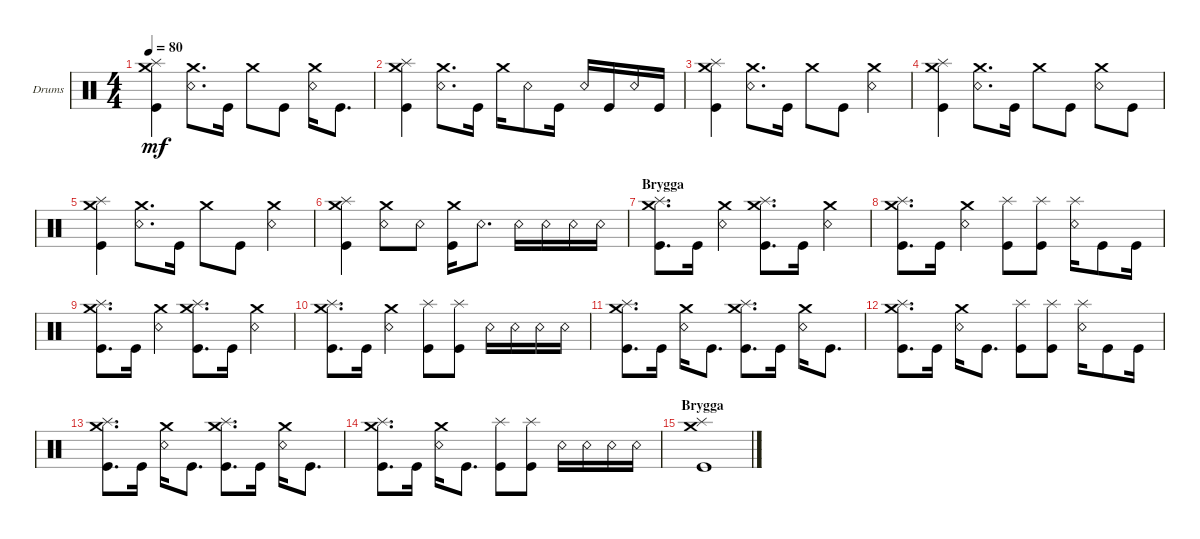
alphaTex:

\defaultSystemsLayout 4
\bracketExtendMode groupsimilarinstruments
\firstSystemTrackNameOrientation horizontal
\otherSystemsTrackNameOrientation horizontal
\track ("Drums" "Drums") {instrument percussion}
\staff {score}
\articulation defaults
\ts (4 4)
\tempo 80
\clef neutral
\ks c
("Kick (hit)" "Crash medium (hit)" "Splash (hit)").4{dy mf} ("Snare (rim shot)" "Crash medium (hit)").8{d} "Kick (hit)".16 "Crash medium (hit)".8 "Kick (hit)".8 ("Snare (rim shot)" "Crash medium (hit)").16 "Kick (hit)".8{d} |
("Kick (hit)" "Crash medium (hit)" "Splash (hit)").4 ("Snare (rim shot)" "Crash medium (hit)").8{d} "Kick (hit)".16 "Crash medium (hit)".16 "Snare (rim shot)".8 "Kick (hit)".16 "Snare (rim shot)".16 "Kick (hit)".16 "Snare (rim shot)".16 "Kick (hit)".16 |
("Kick (hit)" "Crash medium (hit)" "Splash (hit)").4 ("Snare (rim shot)" "Crash medium (hit)").8{d} "Kick (hit)".16 "Crash medium (hit)".8 "Kick (hit)".8 ("Snare (rim shot)" "Crash medium (hit)").4 |
("Kick (hit)" "Crash medium (hit)" "Splash (hit)").4 ("Snare (rim shot)" "Crash medium (hit)").8{d} "Kick (hit)".16 "Crash medium (hit)".8 "Kick (hit)".8 ("Snare (rim shot)" "Crash medium (hit)").8 "Kick (hit)".8 |
("Kick (hit)" "Crash medium (hit)" "Splash (hit)").4 ("Snare (rim shot)" "Crash medium (hit)").8{d} "Kick (hit)".16 "Crash medium (hit)".8 "Kick (hit)".8 ("Snare (rim shot)" "Crash medium (hit)").4 |
("Kick (hit)" "Crash medium (hit)" "Splash (hit)").4 ("Snare (rim shot)" "Crash medium (hit)").8 "Snare (rim shot)".8 ("Crash medium (hit)" "Kick (hit)").16 "Snare (rim shot)".8{d} "Snare (rim shot)".16 "Snare (rim shot)".16 "Snare (rim shot)".16 "Snare (rim shot)".16 |
\section ("" "Brygga")
("Kick (hit)" "Crash medium (hit)" "Splash (hit)").8{d} "Kick (hit)".16 ("Snare (rim shot)" "Crash medium (hit)").4 ("Kick (hit)" "Crash medium (hit)" "Splash (hit)").8{d} "Kick (hit)".16 ("Snare (rim shot)" "Crash medium (hit)").4 |
("Kick (hit)" "Crash medium (hit)" "Splash (hit)").8{d} "Kick (hit)".16 ("Snare (rim shot)" "Crash medium (hit)").4 ("Kick (hit)" "Splash (hit)").8 ("Kick (hit)" "Splash (hit)").8 ("Snare (rim shot)" "Splash (hit)").16 "Kick (hit)".8 "Kick (hit)".16 |
("Kick (hit)" "Crash medium (hit)" "Splash (hit)").8{d} "Kick (hit)".16 ("Snare (rim shot)" "Crash medium (hit)").4 ("Kick (hit)" "Crash medium (hit)" "Splash (hit)").8{d} "Kick (hit)".16 ("Snare (rim shot)" "Crash medium (hit)").4 |
("Kick (hit)" "Crash medium (hit)" "Splash (hit)").8{d} "Kick (hit)".16 ("Snare (rim shot)" "Crash medium (hit)").4 ("Kick (hit)" "Splash (hit)").8 ("Kick (hit)" "Splash (hit)").8 "Snare (rim shot)".16 "Snare (rim shot)".16 "Snare (rim shot)".16 "Snare (rim shot)".16 |
("Kick (hit)" "Crash medium (hit)" "Splash (hit)").8{d} "Kick (hit)".16 ("Snare (rim shot)" "Crash medium (hit)").16 "Kick (hit)".8{d} ("Kick (hit)" "Crash medium (hit)" "Splash (hit)").8{d} "Kick (hit)".16 ("Snare (rim shot)" "Crash medium (hit)").16 "Kick (hit)".8{d} |
("Kick (hit)" "Crash medium (hit)" "Splash (hit)").8{d} "Kick (hit)".16 ("Snare (rim shot)" "Crash medium (hit)").16 "Kick (hit)".8{d} ("Kick (hit)" "Splash (hit)").8 ("Kick (hit)" "Splash (hit)").8 ("Snare (rim shot)" "Splash (hit)").16 "Kick (hit)".8 "Kick (hit)".16 |
("Kick (hit)" "Crash medium (hit)" "Splash (hit)").8{d} "Kick (hit)".16 ("Snare (rim shot)" "Crash medium (hit)").16 "Kick (hit)".8{d} ("Kick (hit)" "Crash medium (hit)" "Splash (hit)").8{d} "Kick (hit)".16 ("Snare (rim shot)" "Crash medium (hit)").16 "Kick (hit)".8{d} |
("Kick (hit)" "Crash medium (hit)" "Splash (hit)").8{d} "Kick (hit)".16 ("Snare (rim shot)" "Crash medium (hit)").16 "Kick (hit)".8{d} ("Kick (hit)" "Splash (hit)").8 ("Kick (hit)" "Splash (hit)").8 "Snare (rim shot)".16 "Snare (rim shot)".16 "Snare (rim shot)".16 "Snare (rim shot)".16 |
\section ("" "Brygga")
("Kick (hit)" "Crash medium (hit)" "Splash (hit)").1
